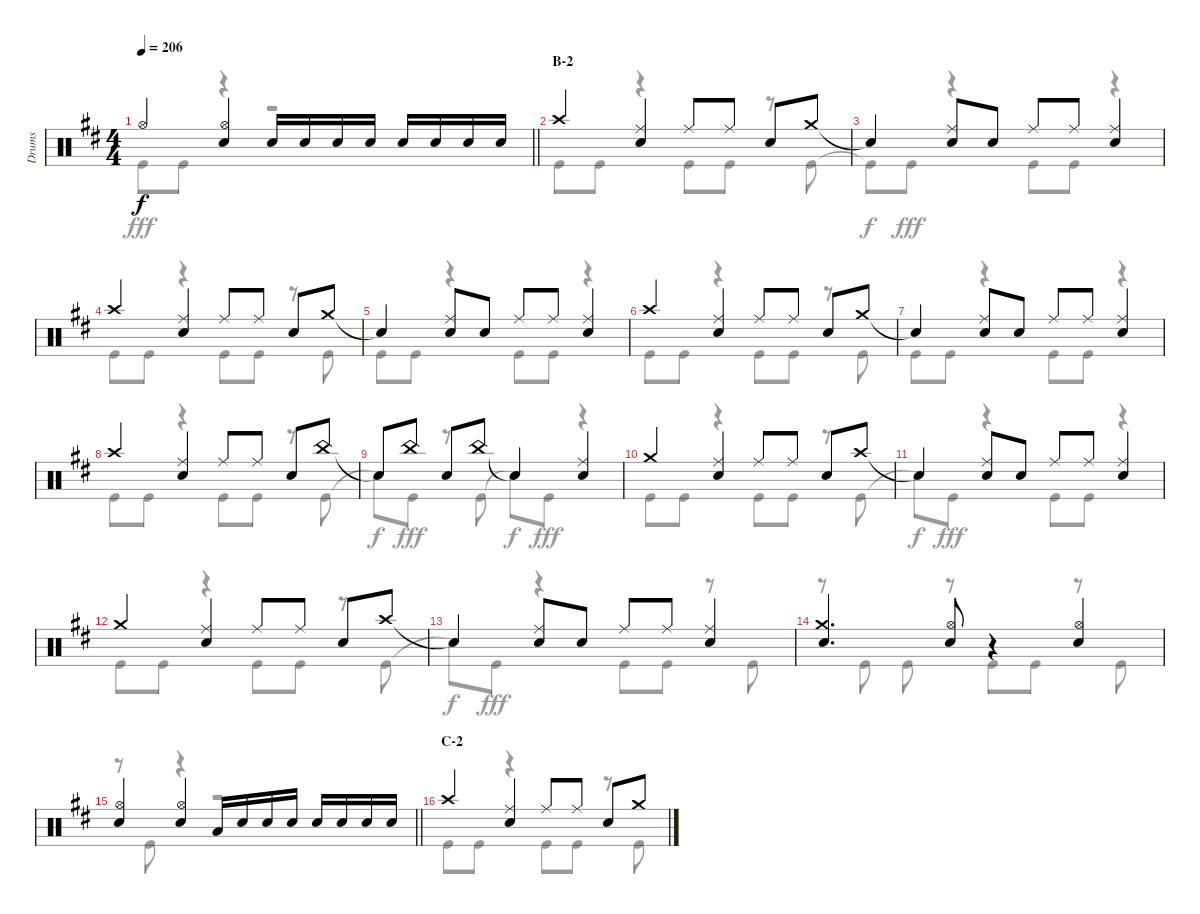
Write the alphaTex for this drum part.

\track ("Drums" "Drums") {instrument percussion}
\staff {score}
\articulation defaults
\voice
\ts (4 4)
\tempo 206
\clef neutral
\barLineRight lightlight
\ks d "Hi-Hat (open)".4{dy f}
("Hi-Hat (open)" "Snare (hit) 2").4 "Snare (hit) 2".16 "Snare (hit) 2".16 "Snare (hit) 2".16 "Snare (hit) 2".16 "Snare (hit) 2".16 "Snare (hit) 2".16 "Snare (hit) 2".16 "Snare (hit) 2".16 |
\section ("" "B-2")
"Crash high (hit)".4 ("Ride (middle)" "Snare (hit) 2").4 "Ride (middle)".8 "Ride (middle)".8 "Snare (hit) 2".8 "Crash medium (hit)".8 |
"Snare (hit)"{t}.4 ("Ride (middle)" "Snare (hit) 2").8 "Snare (hit) 2".8 "Ride (middle)".8 "Ride (middle)".8 ("Ride (middle)" "Snare (hit) 2").4 |
"Crash high (hit)".4 ("Ride (middle)" "Snare (hit) 2").4 "Ride (middle)".8 "Ride (middle)".8 "Snare (hit) 2".8 "Crash medium (hit)".8 |
"Snare (hit)"{t}.4 ("Ride (middle)" "Snare (hit) 2").8 "Snare (hit) 2".8 "Ride (middle)".8 "Ride (middle)".8 ("Ride (middle)" "Snare (hit) 2").4 |
"Crash high (hit)".4 ("Ride (middle)" "Snare (hit) 2").4 "Ride (middle)".8 "Ride (middle)".8 "Snare (hit) 2".8 "Crash medium (hit)".8 |
"Snare (hit)"{t}.4 ("Ride (middle)" "Snare (hit) 2").8 "Snare (hit) 2".8 "Ride (middle)".8 "Ride (middle)".8 ("Ride (middle)" "Snare (hit) 2").4 |
"Crash high (hit)".4 ("Ride (middle)" "Snare (hit) 2").4 "Ride (middle)".8 "Ride (middle)".8 "Snare (hit) 2".8 "China (hit)".8 |
"Snare (hit)"{t}.8 "China (hit)".8 "Snare (hit) 2".8 "China (hit)".8 "Snare (hit)"{t}.4 ("Ride (middle)" "Snare (hit) 2").4 |
"Crash medium (hit)".4 ("Ride (middle)" "Snare (hit) 2").4 "Ride (middle)".8 "Ride (middle)".8 "Snare (hit) 2".8 "Crash high (hit)".8 |
"Snare (hit)"{t}.4 ("Ride (middle)" "Snare (hit) 2").8 "Snare (hit) 2".8 "Ride (middle)".8 "Ride (middle)".8 ("Ride (middle)" "Snare (hit) 2").4 |
"Crash medium (hit)".4 ("Ride (middle)" "Snare (hit) 2").4 "Ride (middle)".8 "Ride (middle)".8 "Snare (hit) 2".8 "Crash high (hit)".8 |
"Snare (hit)"{t}.4 ("Ride (middle)" "Snare (hit) 2").8 "Snare (hit) 2".8 "Ride (middle)".8 "Ride (middle)".8 ("Ride (middle)" "Snare (hit) 2").4 |
("Crash medium (hit)" "Snare (hit) 2").4{d} ("Hi-Hat (open)" "Snare (hit) 2").8 r.4 ("Hi-Hat (open)" "Snare (hit) 2").4 |
\barLineRight lightlight
("Hi-Hat (open)" "Snare (hit) 2").4 ("Hi-Hat (open)" "Snare (hit) 2").4 "Low Tom (hit)".16 "Snare (hit) 2".16 "Snare (hit) 2".16 "Snare (hit) 2".16 "Snare (hit) 2".16 "Snare (hit) 2".16 "Snare (hit) 2".16 "Snare (hit) 2".16 |
\section ("" "C-2")
"Crash high (hit)".4 ("Ride (middle)" "Snare (hit) 2").4 "Ride (middle)".8 "Ride (middle)".8 "Snare (hit) 2".8 "Crash medium (hit)".8
\voice
\clef neutral
\ottava regular
\simile none
\barLineRight lightlight
\ks d "Kick (hit)".8{dy fff} "Kick (hit)".8
r.4 r.2 |
"Kick (hit)".8 "Kick (hit)".8 r.4 "Kick (hit)".8 "Kick (hit)".8 r.8 "Kick (hit)".8 |
"Kick (hit)"{t}.8{dy f} "Kick (hit)".8{dy fff} r.4 "Kick (hit)".8 "Kick (hit)".8 r.4 |
"Kick (hit)".8 "Kick (hit)".8 r.4 "Kick (hit)".8 "Kick (hit)".8 r.8 "Kick (hit)".8 |
"Kick (hit)".8 "Kick (hit)".8 r.4 "Kick (hit)".8 "Kick (hit)".8 r.4 |
"Kick (hit)".8 "Kick (hit)".8 r.4 "Kick (hit)".8 "Kick (hit)".8 r.8 "Kick (hit)".8 |
"Kick (hit)".8 "Kick (hit)".8 r.4 "Kick (hit)".8 "Kick (hit)".8 r.4 |
"Kick (hit)".8 "Kick (hit)".8 r.4 "Kick (hit)".8 "Kick (hit)".8 r.8 "Kick (hit)".8 |
"Snare (hit)"{t}.8{dy f} "Kick (hit)".8{dy fff} r.8 "Kick (hit)".8 "Snare (hit)"{t}.8{dy f} "Kick (hit)".8{dy fff} r.4 |
"Kick (hit)".8 "Kick (hit)".8 r.4 "Kick (hit)".8 "Kick (hit)".8 r.8 "Kick (hit)".8 |
"Snare (hit)"{t}.8{dy f} "Kick (hit)".8{dy fff} r.4 "Kick (hit)".8 "Kick (hit)".8 r.4 |
"Kick (hit)".8 "Kick (hit)".8 r.4 "Kick (hit)".8 "Kick (hit)".8 r.8 "Kick (hit)".8 |
"Snare (hit)"{t}.8{dy f} "Kick (hit)".8{dy fff} r.4 "Kick (hit)".8 "Kick (hit)".8 r.8 "Kick (hit)".8 |
r.8 "Kick (hit)".8 "Kick (hit)".8 r.8 "Kick (hit)".8 "Kick (hit)".8 r.8 "Kick (hit)".8 |
\barLineRight lightlight
r.8 "Kick (hit)".8 r.4 r.2 |
"Kick (hit)".8 "Kick (hit)".8 r.4 "Kick (hit)".8 "Kick (hit)".8 r.8 "Kick (hit)".8
